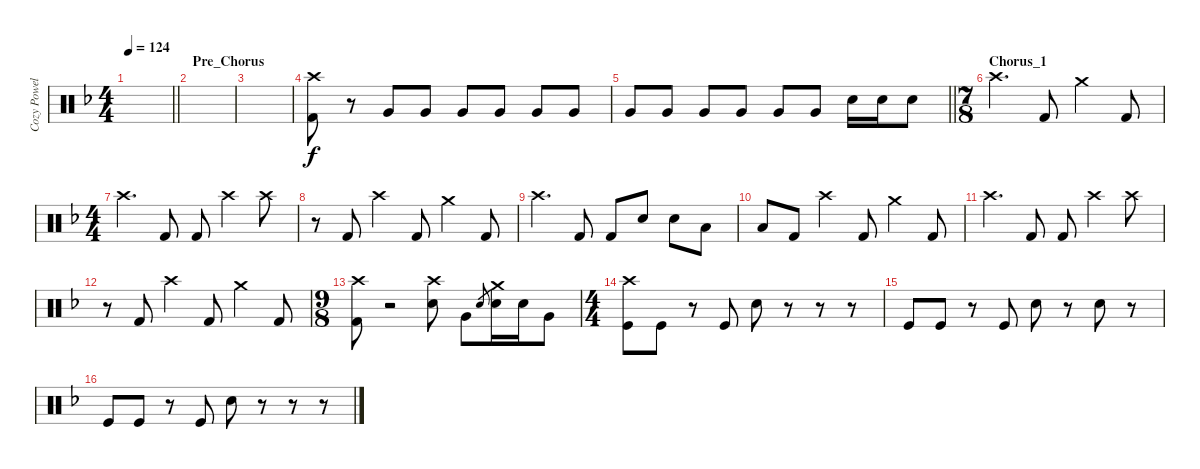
\track ("Cozy Powell" "Cozy Powel") {instrument percussion}
\staff {score}
\articulation defaults
\ts (4 4)
\tempo 124
\clef neutral
\barLineRight lightlight
\ks f
|
\section ("" "Pre_Chorus")
|
|
("Crash high (hit)" "Kick (hit) 2").8 r.8 "Very Low Tom (hit)".8{volume 6} "Very Low Tom (hit)".8{volume 13} "Very Low Tom (hit)".8 "Very Low Tom (hit)".8 "Very Low Tom (hit)".8 "Very Low Tom (hit)".8 |
\barLineRight lightlight "Very Low Tom (hit)".8 "Very Low Tom (hit)".8 "Very Low Tom (hit)".8 "Very Low Tom (hit)".8 "Very Low Tom (hit)".8 "Very Low Tom (hit)".8 "Snare (hit) 2".16 "Snare (hit) 2".16 "Snare (hit) 2".8
|
\ts (7 8)
\section ("" "Chorus_1")
"Crash high (hit)".4{d} "Kick (hit) 2".8 "Crash medium (hit)".4 "Kick (hit) 2".8 |
\ts (4 4)
"Crash high (hit)".4{d} "Kick (hit) 2".8 "Kick (hit) 2".8 "Crash high (hit)".4 "Crash high (hit)".8 |
r.8 "Kick (hit) 2".8 "Crash high (hit)".4 "Kick (hit) 2".8 "Crash medium (hit)".4 "Kick (hit) 2".8 |
"Crash high (hit)".4{d} "Kick (hit) 2".8 "Kick (hit) 2".8 "Snare (hit) 2".8 "Snare (hit) 2".8 "Low Tom (hit)".8 |
"Low Tom (hit)".8 "Kick (hit) 2".8 "Crash high (hit)".4 "Kick (hit) 2".8 "Crash medium (hit)".4 "Kick (hit) 2".8 |
"Crash high (hit)".4{d} "Kick (hit) 2".8 "Kick (hit) 2".8 "Crash high (hit)".4 "Crash high (hit)".8 |
r.8 "Kick (hit) 2".8 "Crash high (hit)".4 "Kick (hit) 2".8 "Crash medium (hit)".4 "Kick (hit) 2".8 |
\ts (9 8)
("Crash high (hit)" "Kick (hit) 2").8 r.2{volume 0} ("Crash high (hit)" "Snare (hit) 2").8{volume 13} "Very Low Tom (hit)".8 "Snare (hit) 2".8{gr} ("Crash medium (hit)" "Snare (hit) 2").16 "Snare (hit) 2".16 "Very Low Tom (hit)".8 |
\ts (4 4)
("Kick (hit)" "Crash high (hit)").8 "Kick (hit)".8 r.8 "Kick (hit)".8 "Snare (hit) 2".8 r.8 r.8 r.8 |
"Kick (hit)".8 "Kick (hit)".8 r.8 "Kick (hit)".8 "Snare (hit) 2".8 r.8 "Snare (hit) 2".8 r.8 |
"Kick (hit)".8 "Kick (hit)".8 r.8 "Kick (hit)".8 "Snare (hit) 2".8 r.8 r.8 r.8
